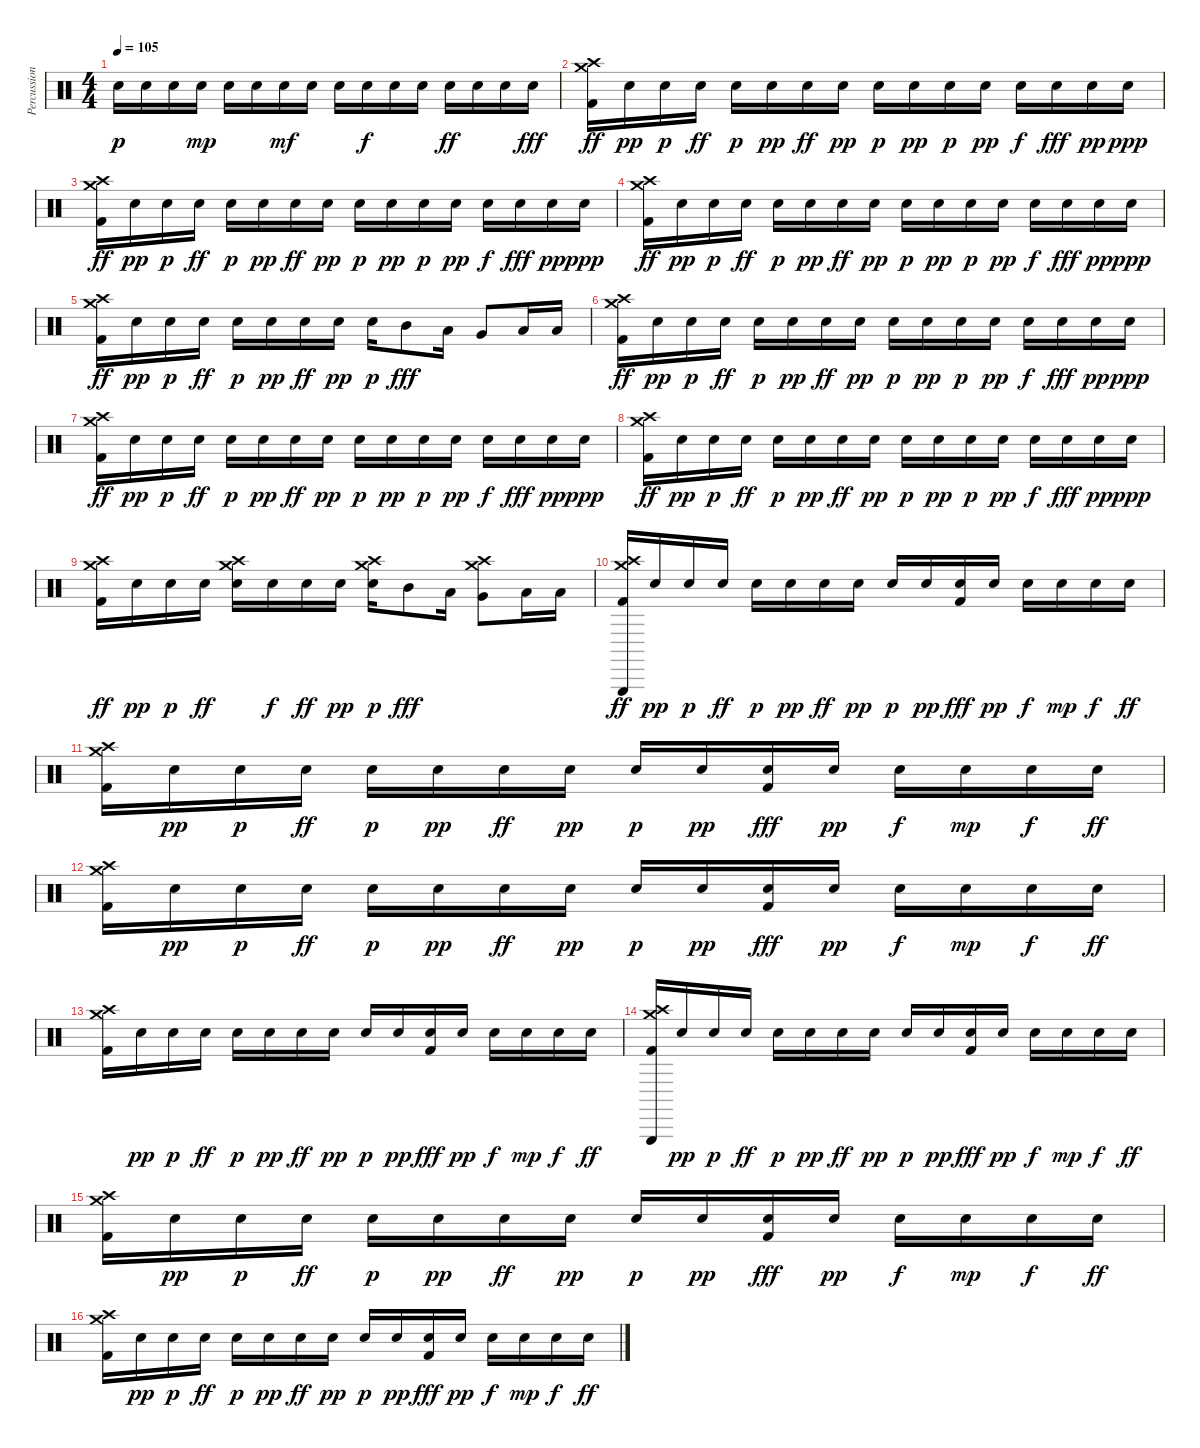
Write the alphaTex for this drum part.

\track ("Percussion" "Percussion") {instrument percussion}
\staff {score}
\articulation defaults
\ts (4 4)
\tempo 105
\clef neutral
\ks c "Electric Snare (hit)".16{dy p} "Electric Snare (hit)".16 "Electric Snare (hit)".16 "Electric Snare (hit)".16{dy mp} "Electric Snare (hit)".16 "Electric Snare (hit)".16 "Electric Snare (hit)".16{dy mf} "Electric Snare (hit)".16 "Electric Snare (hit)".16 "Electric Snare (hit)".16{dy f} "Electric Snare (hit)".16 "Electric Snare (hit)".16 "Electric Snare (hit)".16{dy ff} "Electric Snare (hit)".16 "Electric Snare (hit)".16 "Electric Snare (hit)".16{dy fff}
|
("Crash high (hit)" "Crash medium (hit)" "Kick (hit) 2").16{dy ff} "Electric Snare (hit)".16{dy pp} "Electric Snare (hit)".16{dy p} "Electric Snare (hit)".16{dy ff} "Electric Snare (hit)".16{dy p} "Electric Snare (hit)".16{dy pp} "Electric Snare (hit)".16{dy ff} "Electric Snare (hit)".16{dy pp} "Electric Snare (hit)".16{dy p} "Electric Snare (hit)".16{dy pp} "Electric Snare (hit)".16{dy p} "Electric Snare (hit)".16{dy pp} "Electric Snare (hit)".16{dy f} "Electric Snare (hit)".16{dy fff} "Electric Snare (hit)".16{dy pp} "Electric Snare (hit)".16{dy ppp} |
("Crash high (hit)" "Crash medium (hit)" "Kick (hit) 2").16{dy ff} "Electric Snare (hit)".16{dy pp} "Electric Snare (hit)".16{dy p} "Electric Snare (hit)".16{dy ff} "Electric Snare (hit)".16{dy p} "Electric Snare (hit)".16{dy pp} "Electric Snare (hit)".16{dy ff} "Electric Snare (hit)".16{dy pp} "Electric Snare (hit)".16{dy p} "Electric Snare (hit)".16{dy pp} "Electric Snare (hit)".16{dy p} "Electric Snare (hit)".16{dy pp} "Electric Snare (hit)".16{dy f} "Electric Snare (hit)".16{dy fff} "Electric Snare (hit)".16{dy pp} "Electric Snare (hit)".16{dy ppp} |
("Crash high (hit)" "Crash medium (hit)" "Kick (hit) 2").16{dy ff} "Electric Snare (hit)".16{dy pp} "Electric Snare (hit)".16{dy p} "Electric Snare (hit)".16{dy ff} "Electric Snare (hit)".16{dy p} "Electric Snare (hit)".16{dy pp} "Electric Snare (hit)".16{dy ff} "Electric Snare (hit)".16{dy pp} "Electric Snare (hit)".16{dy p} "Electric Snare (hit)".16{dy pp} "Electric Snare (hit)".16{dy p} "Electric Snare (hit)".16{dy pp} "Electric Snare (hit)".16{dy f} "Electric Snare (hit)".16{dy fff} "Electric Snare (hit)".16{dy pp} "Electric Snare (hit)".16{dy ppp} |
("Crash high (hit)" "Crash medium (hit)" "Kick (hit) 2").16{dy ff} "Electric Snare (hit)".16{dy pp} "Electric Snare (hit)".16{dy p} "Electric Snare (hit)".16{dy ff} "Electric Snare (hit)".16{dy p} "Electric Snare (hit)".16{dy pp} "Electric Snare (hit)".16{dy ff} "Electric Snare (hit)".16{dy pp} "Electric Snare (hit)".16{dy p} "Mid Tom (hit)".8{dy fff} "Low Tom (hit)".16 "Very Low Tom (hit)".8 "Low Floor Tom (hit)".16 "Low Floor Tom (hit)".16 |
("Crash high (hit)" "Crash medium (hit)" "Kick (hit) 2").16{dy ff} "Electric Snare (hit)".16{dy pp} "Electric Snare (hit)".16{dy p} "Electric Snare (hit)".16{dy ff} "Electric Snare (hit)".16{dy p} "Electric Snare (hit)".16{dy pp} "Electric Snare (hit)".16{dy ff} "Electric Snare (hit)".16{dy pp} "Electric Snare (hit)".16{dy p} "Electric Snare (hit)".16{dy pp} "Electric Snare (hit)".16{dy p} "Electric Snare (hit)".16{dy pp} "Electric Snare (hit)".16{dy f} "Electric Snare (hit)".16{dy fff} "Electric Snare (hit)".16{dy pp} "Electric Snare (hit)".16{dy ppp} |
("Crash high (hit)" "Crash medium (hit)" "Kick (hit) 2").16{dy ff} "Electric Snare (hit)".16{dy pp} "Electric Snare (hit)".16{dy p} "Electric Snare (hit)".16{dy ff} "Electric Snare (hit)".16{dy p} "Electric Snare (hit)".16{dy pp} "Electric Snare (hit)".16{dy ff} "Electric Snare (hit)".16{dy pp} "Electric Snare (hit)".16{dy p} "Electric Snare (hit)".16{dy pp} "Electric Snare (hit)".16{dy p} "Electric Snare (hit)".16{dy pp} "Electric Snare (hit)".16{dy f} "Electric Snare (hit)".16{dy fff} "Electric Snare (hit)".16{dy pp} "Electric Snare (hit)".16{dy ppp} |
("Crash high (hit)" "Crash medium (hit)" "Kick (hit) 2").16{dy ff} "Electric Snare (hit)".16{dy pp} "Electric Snare (hit)".16{dy p} "Electric Snare (hit)".16{dy ff} "Electric Snare (hit)".16{dy p} "Electric Snare (hit)".16{dy pp} "Electric Snare (hit)".16{dy ff} "Electric Snare (hit)".16{dy pp} "Electric Snare (hit)".16{dy p} "Electric Snare (hit)".16{dy pp} "Electric Snare (hit)".16{dy p} "Electric Snare (hit)".16{dy pp} "Electric Snare (hit)".16{dy f} "Electric Snare (hit)".16{dy fff} "Electric Snare (hit)".16{dy pp} "Electric Snare (hit)".16{dy ppp} |
("Crash high (hit)" "Crash medium (hit)" "Kick (hit) 2").16{dy ff} "Electric Snare (hit)".16{dy pp} "Electric Snare (hit)".16{dy p} "Electric Snare (hit)".16{dy ff} ("Crash high (hit)" "Crash medium (hit)" "Electric Snare (hit)").16 "Electric Snare (hit)".16{dy f} "Electric Snare (hit)".16{dy ff} "Electric Snare (hit)".16{dy pp} ("Crash high (hit)" "Crash medium (hit)" "Electric Snare (hit)").16{dy p} "Mid Tom (hit)".8{dy fff} "Low Tom (hit)".16 ("Crash medium (hit)" "Crash high (hit)" "Very Low Tom (hit)").8 "Low Floor Tom (hit)".16 "Low Floor Tom (hit)".16 |
("Crash high (hit)" "Crash medium (hit)" "Triangle (hit)" "Kick (hit) 2").16{dy ff} "Electric Snare (hit)".16{dy pp} "Electric Snare (hit)".16{dy p} "Electric Snare (hit)".16{dy ff} "Electric Snare (hit)".16{dy p} "Electric Snare (hit)".16{dy pp} "Electric Snare (hit)".16{dy ff} "Electric Snare (hit)".16{dy pp} "Electric Snare (hit)".16{dy p} "Electric Snare (hit)".16{dy pp} ("Electric Snare (hit)" "Kick (hit) 2").16{dy fff} "Electric Snare (hit)".16{dy pp} "Electric Snare (hit)".16{dy f} "Electric Snare (hit)".16{dy mp} "Electric Snare (hit)".16{dy f} "Electric Snare (hit)".16{dy ff} |
("Crash high (hit)" "Crash medium (hit)" "Kick (hit) 2").16 "Electric Snare (hit)".16{dy pp} "Electric Snare (hit)".16{dy p} "Electric Snare (hit)".16{dy ff} "Electric Snare (hit)".16{dy p} "Electric Snare (hit)".16{dy pp} "Electric Snare (hit)".16{dy ff} "Electric Snare (hit)".16{dy pp} "Electric Snare (hit)".16{dy p} "Electric Snare (hit)".16{dy pp} ("Electric Snare (hit)" "Kick (hit) 2").16{dy fff} "Electric Snare (hit)".16{dy pp} "Electric Snare (hit)".16{dy f} "Electric Snare (hit)".16{dy mp} "Electric Snare (hit)".16{dy f} "Electric Snare (hit)".16{dy ff} |
("Crash high (hit)" "Crash medium (hit)" "Kick (hit) 2").16 "Electric Snare (hit)".16{dy pp} "Electric Snare (hit)".16{dy p} "Electric Snare (hit)".16{dy ff} "Electric Snare (hit)".16{dy p} "Electric Snare (hit)".16{dy pp} "Electric Snare (hit)".16{dy ff} "Electric Snare (hit)".16{dy pp} "Electric Snare (hit)".16{dy p} "Electric Snare (hit)".16{dy pp} ("Electric Snare (hit)" "Kick (hit) 2").16{dy fff} "Electric Snare (hit)".16{dy pp} "Electric Snare (hit)".16{dy f} "Electric Snare (hit)".16{dy mp} "Electric Snare (hit)".16{dy f} "Electric Snare (hit)".16{dy ff} |
("Crash high (hit)" "Crash medium (hit)" "Kick (hit) 2").16 "Electric Snare (hit)".16{dy pp} "Electric Snare (hit)".16{dy p} "Electric Snare (hit)".16{dy ff} "Electric Snare (hit)".16{dy p} "Electric Snare (hit)".16{dy pp} "Electric Snare (hit)".16{dy ff} "Electric Snare (hit)".16{dy pp} "Electric Snare (hit)".16{dy p} "Electric Snare (hit)".16{dy pp} ("Electric Snare (hit)" "Kick (hit) 2").16{dy fff} "Electric Snare (hit)".16{dy pp} "Electric Snare (hit)".16{dy f} "Electric Snare (hit)".16{dy mp} "Electric Snare (hit)".16{dy f} "Electric Snare (hit)".16{dy ff} |
("Crash high (hit)" "Crash medium (hit)" "Triangle (hit)" "Kick (hit) 2").16 "Electric Snare (hit)".16{dy pp} "Electric Snare (hit)".16{dy p} "Electric Snare (hit)".16{dy ff} "Electric Snare (hit)".16{dy p} "Electric Snare (hit)".16{dy pp} "Electric Snare (hit)".16{dy ff} "Electric Snare (hit)".16{dy pp} "Electric Snare (hit)".16{dy p} "Electric Snare (hit)".16{dy pp} ("Electric Snare (hit)" "Kick (hit) 2").16{dy fff} "Electric Snare (hit)".16{dy pp} "Electric Snare (hit)".16{dy f} "Electric Snare (hit)".16{dy mp} "Electric Snare (hit)".16{dy f} "Electric Snare (hit)".16{dy ff} |
("Crash high (hit)" "Crash medium (hit)" "Kick (hit) 2").16 "Electric Snare (hit)".16{dy pp} "Electric Snare (hit)".16{dy p} "Electric Snare (hit)".16{dy ff} "Electric Snare (hit)".16{dy p} "Electric Snare (hit)".16{dy pp} "Electric Snare (hit)".16{dy ff} "Electric Snare (hit)".16{dy pp} "Electric Snare (hit)".16{dy p} "Electric Snare (hit)".16{dy pp} ("Electric Snare (hit)" "Kick (hit) 2").16{dy fff} "Electric Snare (hit)".16{dy pp} "Electric Snare (hit)".16{dy f} "Electric Snare (hit)".16{dy mp} "Electric Snare (hit)".16{dy f} "Electric Snare (hit)".16{dy ff} |
("Crash high (hit)" "Crash medium (hit)" "Kick (hit) 2").16 "Electric Snare (hit)".16{dy pp} "Electric Snare (hit)".16{dy p} "Electric Snare (hit)".16{dy ff} "Electric Snare (hit)".16{dy p} "Electric Snare (hit)".16{dy pp} "Electric Snare (hit)".16{dy ff} "Electric Snare (hit)".16{dy pp} "Electric Snare (hit)".16{dy p} "Electric Snare (hit)".16{dy pp} ("Electric Snare (hit)" "Kick (hit) 2").16{dy fff} "Electric Snare (hit)".16{dy pp} "Electric Snare (hit)".16{dy f} "Electric Snare (hit)".16{dy mp} "Electric Snare (hit)".16{dy f} "Electric Snare (hit)".16{dy ff}
